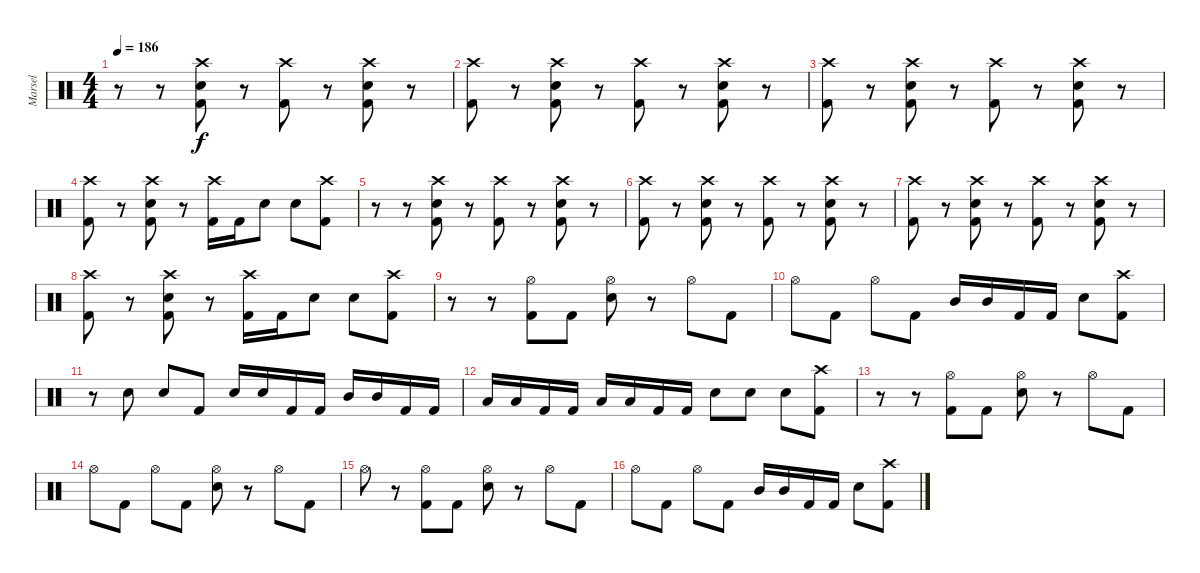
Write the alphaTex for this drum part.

\track ("Marsel" "Marsel") {mute instrument percussion}
\staff {score}
\articulation defaults
\ts (4 4)
\tempo 186
\clef neutral
\ks c
r.8{dy f} r.8 ("Crash high (hit)" "Snare (hit) 2" "Kick (hit) 2").8 r.8 ("Crash high (hit)" "Kick (hit) 2").8 r.8 ("Crash high (hit)" "Snare (hit) 2" "Kick (hit) 2").8 r.8 |
("Crash high (hit)" "Kick (hit) 2").8 r.8 ("Crash high (hit)" "Snare (hit) 2" "Kick (hit) 2").8 r.8 ("Crash high (hit)" "Kick (hit) 2").8 r.8 ("Crash high (hit)" "Snare (hit) 2" "Kick (hit) 2").8 r.8 |
("Crash high (hit)" "Kick (hit) 2").8 r.8 ("Crash high (hit)" "Snare (hit) 2" "Kick (hit) 2").8 r.8 ("Crash high (hit)" "Kick (hit) 2").8 r.8 ("Crash high (hit)" "Snare (hit) 2" "Kick (hit) 2").8 r.8 |
("Crash high (hit)" "Kick (hit) 2").8 r.8 ("Crash high (hit)" "Snare (hit) 2" "Kick (hit) 2").8 r.8 ("Crash high (hit)" "Kick (hit) 2").16 "Kick (hit) 2".16 "Snare (hit) 2".8 "Snare (hit) 2".8 ("Crash high (hit)" "Kick (hit) 2").8 |
r.8 r.8 ("Crash high (hit)" "Snare (hit) 2" "Kick (hit) 2").8 r.8 ("Crash high (hit)" "Kick (hit) 2").8 r.8 ("Crash high (hit)" "Snare (hit) 2" "Kick (hit) 2").8 r.8 |
("Crash high (hit)" "Kick (hit) 2").8 r.8 ("Crash high (hit)" "Snare (hit) 2" "Kick (hit) 2").8 r.8 ("Crash high (hit)" "Kick (hit) 2").8 r.8 ("Crash high (hit)" "Snare (hit) 2" "Kick (hit) 2").8 r.8 |
("Crash high (hit)" "Kick (hit) 2").8 r.8 ("Crash high (hit)" "Snare (hit) 2" "Kick (hit) 2").8 r.8 ("Crash high (hit)" "Kick (hit) 2").8 r.8 ("Crash high (hit)" "Snare (hit) 2" "Kick (hit) 2").8 r.8 |
("Crash high (hit)" "Kick (hit) 2").8 r.8 ("Crash high (hit)" "Snare (hit) 2" "Kick (hit) 2").8 r.8 ("Crash high (hit)" "Kick (hit) 2").16 "Kick (hit) 2".16 "Snare (hit) 2".8 "Snare (hit) 2".8 ("Crash high (hit)" "Kick (hit) 2").8 |
r.8 r.8 ("Hi-Hat (open)" "Kick (hit) 2").8 "Kick (hit) 2".8 ("Hi-Hat (open)" "Snare (hit) 2").8 r.8 "Hi-Hat (open)".8 "Kick (hit) 2".8 |
"Hi-Hat (open)".8 "Kick (hit) 2".8 "Hi-Hat (open)".8 "Kick (hit) 2".8 "Mid Tom (hit)".16 "Mid Tom (hit)".16 "Kick (hit) 2".16 "Kick (hit) 2".16 "Snare (hit) 2".8 ("Crash high (hit)" "Kick (hit) 2").8 |
r.8 "Snare (hit) 2".8 "Snare (hit) 2".8 "Kick (hit) 2".8 "Snare (hit) 2".16 "Snare (hit) 2".16 "Kick (hit) 2".16 "Kick (hit) 2".16 "Mid Tom (hit)".16 "Mid Tom (hit)".16 "Kick (hit) 2".16 "Kick (hit) 2".16 |
"Low Tom (hit)".16 "Low Tom (hit)".16 "Kick (hit) 2".16 "Kick (hit) 2".16 "Low Floor Tom (hit)".16 "Low Floor Tom (hit)".16 "Kick (hit) 2".16 "Kick (hit) 2".16 "Snare (hit) 2".8 "Snare (hit) 2".8 "Snare (hit) 2".8 ("Crash high (hit)" "Kick (hit) 2").8 |
r.8 r.8 ("Hi-Hat (open)" "Kick (hit) 2").8 "Kick (hit) 2".8 ("Hi-Hat (open)" "Snare (hit) 2").8 r.8 "Hi-Hat (open)".8 "Kick (hit) 2".8 |
"Hi-Hat (open)".8 "Kick (hit) 2".8 "Hi-Hat (open)".8 "Kick (hit) 2".8 ("Hi-Hat (open)" "Snare (hit) 2").8 r.8 "Hi-Hat (open)".8 "Kick (hit) 2".8 |
"Hi-Hat (open)".8 r.8 ("Hi-Hat (open)" "Kick (hit) 2").8 "Kick (hit) 2".8 ("Hi-Hat (open)" "Snare (hit) 2").8 r.8 "Hi-Hat (open)".8 "Kick (hit) 2".8 |
"Hi-Hat (open)".8 "Kick (hit) 2".8 "Hi-Hat (open)".8 "Kick (hit) 2".8 "Mid Tom (hit)".16 "Mid Tom (hit)".16 "Kick (hit) 2".16 "Kick (hit) 2".16 "Snare (hit) 2".8 ("Crash high (hit)" "Kick (hit) 2").8
